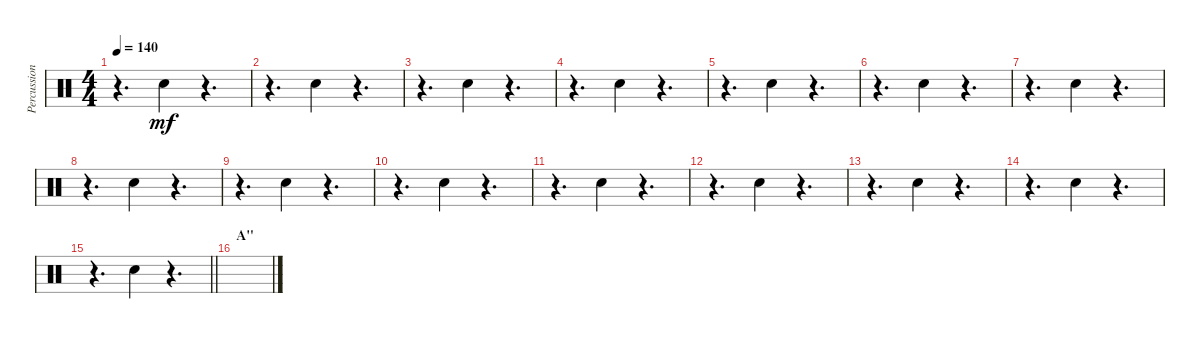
\track ("Percussion" "Percussion") {instrument percussion}
\staff {score}
\articulation defaults
\ts (4 4)
\tempo 140
\clef neutral
\ks c
r.4{d dy mf} "Hand Clap (hit)".4 r.4{d} |
r.4{d} "Hand Clap (hit)".4 r.4{d} |
r.4{d} "Hand Clap (hit)".4 r.4{d} |
r.4{d} "Hand Clap (hit)".4 r.4{d} |
r.4{d} "Hand Clap (hit)".4 r.4{d} |
r.4{d} "Hand Clap (hit)".4 r.4{d} |
r.4{d} "Hand Clap (hit)".4 r.4{d} |
r.4{d} "Hand Clap (hit)".4 r.4{d} |
r.4{d} "Hand Clap (hit)".4 r.4{d} |
r.4{d} "Hand Clap (hit)".4 r.4{d} |
r.4{d} "Hand Clap (hit)".4 r.4{d} |
r.4{d} "Hand Clap (hit)".4 r.4{d} |
r.4{d} "Hand Clap (hit)".4 r.4{d} |
r.4{d} "Hand Clap (hit)".4 r.4{d} |
\barLineRight lightlight
r.4{d} "Hand Clap (hit)".4 r.4{d} |
\section ("" "A''")
